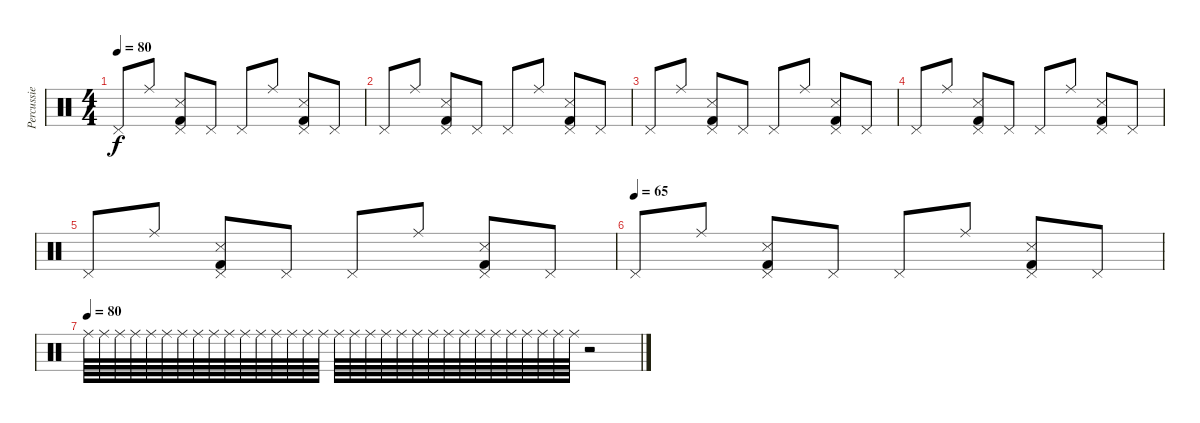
\track ("Percussie" "Percussie") {instrument percussion}
\staff {score}
\articulation defaults
\ts (4 4)
\tempo 80
\clef neutral
\ks c "Pedal Hi-Hat (hit)".8{dy f} "Ride (middle)".8
("Snare (side stick) 3" "Kick (hit) 2" "Pedal Hi-Hat (hit)").8 "Pedal Hi-Hat (hit)".8 "Pedal Hi-Hat (hit)".8 "Ride (middle)".8 ("Snare (side stick) 3" "Kick (hit) 2" "Pedal Hi-Hat (hit)").8 "Pedal Hi-Hat (hit)".8 |
"Pedal Hi-Hat (hit)".8 "Ride (middle)".8 ("Snare (side stick) 3" "Kick (hit) 2" "Pedal Hi-Hat (hit)").8 "Pedal Hi-Hat (hit)".8 "Pedal Hi-Hat (hit)".8 "Ride (middle)".8 ("Snare (side stick) 3" "Kick (hit) 2" "Pedal Hi-Hat (hit)").8 "Pedal Hi-Hat (hit)".8 |
"Pedal Hi-Hat (hit)".8 "Ride (middle)".8 ("Snare (side stick) 3" "Kick (hit) 2" "Pedal Hi-Hat (hit)").8 "Pedal Hi-Hat (hit)".8 "Pedal Hi-Hat (hit)".8 "Ride (middle)".8 ("Snare (side stick) 3" "Kick (hit) 2" "Pedal Hi-Hat (hit)").8 "Pedal Hi-Hat (hit)".8 |
"Pedal Hi-Hat (hit)".8 "Ride (middle)".8 ("Snare (side stick) 3" "Kick (hit) 2" "Pedal Hi-Hat (hit)").8 "Pedal Hi-Hat (hit)".8 "Pedal Hi-Hat (hit)".8 "Ride (middle)".8 ("Snare (side stick) 3" "Kick (hit) 2" "Pedal Hi-Hat (hit)").8 "Pedal Hi-Hat (hit)".8 |
"Pedal Hi-Hat (hit)".8 "Ride (middle)".8 ("Snare (side stick) 3" "Kick (hit) 2" "Pedal Hi-Hat (hit)").8 "Pedal Hi-Hat (hit)".8 "Pedal Hi-Hat (hit)".8 "Ride (middle)".8 ("Snare (side stick) 3" "Kick (hit) 2" "Pedal Hi-Hat (hit)").8 "Pedal Hi-Hat (hit)".8 |
\tempo (65)
"Pedal Hi-Hat (hit)".8 "Ride (middle)".8 ("Snare (side stick) 3" "Kick (hit) 2" "Pedal Hi-Hat (hit)").8 "Pedal Hi-Hat (hit)".8 "Pedal Hi-Hat (hit)".8 "Ride (middle)".8 ("Snare (side stick) 3" "Kick (hit) 2" "Pedal Hi-Hat (hit)").8 "Pedal Hi-Hat (hit)".8 |
\tempo (80)
"Ride (middle)".64 "Ride (middle)".64 "Ride (middle)".64 "Ride (middle)".64 "Ride (middle)".64 "Ride (middle)".64 "Ride (middle)".64 "Ride (middle)".64 "Ride (middle)".64 "Ride (middle)".64 "Ride (middle)".64 "Ride (middle)".64 "Ride (middle)".64 "Ride (middle)".64 "Ride (middle)".64 "Ride (middle)".64 "Ride (middle)".64 "Ride (middle)".64 "Ride (middle)".64 "Ride (middle)".64 "Ride (middle)".64 "Ride (middle)".64 "Ride (middle)".64 "Ride (middle)".64 "Ride (middle)".64 "Ride (middle)".64 "Ride (middle)".64 "Ride (middle)".64 "Ride (middle)".64 "Ride (middle)".64 "Ride (middle)".64 "Ride (middle)".64 r.2
